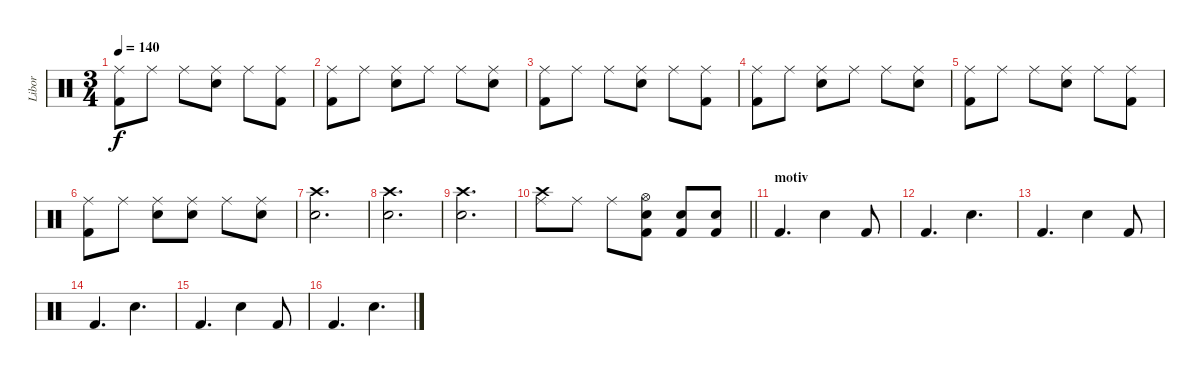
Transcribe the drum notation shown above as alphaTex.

\track ("Libor" "Libor") {instrument percussion}
\staff {score}
\articulation defaults
\ts (3 4)
\tempo 140
\clef neutral
\ks c
("Ride (middle)" "Kick (hit) 2").8{dy f} "Ride (middle)".8 "Ride (middle)".8 ("Ride (middle)" "Snare (hit) 2").8 "Ride (middle)".8 ("Ride (middle)" "Kick (hit) 2").8 |
("Ride (middle)" "Kick (hit) 2").8 "Ride (middle)".8 ("Ride (middle)" "Snare (hit) 2").8 "Ride (middle)".8 "Ride (middle)".8 ("Ride (middle)" "Snare (hit) 2").8 |
("Ride (middle)" "Kick (hit) 2").8 "Ride (middle)".8 "Ride (middle)".8 ("Ride (middle)" "Snare (hit) 2").8 "Ride (middle)".8 ("Ride (middle)" "Kick (hit) 2").8 |
("Ride (middle)" "Kick (hit) 2").8 "Ride (middle)".8 ("Ride (middle)" "Snare (hit) 2").8 "Ride (middle)".8 "Ride (middle)".8 ("Ride (middle)" "Snare (hit) 2").8 |
("Ride (middle)" "Kick (hit) 2").8 "Ride (middle)".8 "Ride (middle)".8 ("Ride (middle)" "Snare (hit) 2").8 "Ride (middle)".8 ("Ride (middle)" "Kick (hit) 2").8 |
("Ride (middle)" "Kick (hit) 2").8 "Ride (middle)".8 ("Ride (middle)" "Snare (hit) 2").8 ("Ride (middle)" "Snare (hit) 2").8 "Ride (middle)".8 ("Ride (middle)" "Snare (hit) 2").8 |
("Crash high (hit)" "Snare (hit) 2").2{d} |
("Crash high (hit)" "Snare (hit) 2").2{d} |
("Crash high (hit)" "Snare (hit) 2").2{d} |
\barLineRight lightlight
("Ride (middle)" "Crash high (hit)").8 "Ride (middle)".8 "Ride (middle)".8 ("Snare (hit) 2" "Kick (hit) 2" "Hi-Hat (open)").8 ("Snare (hit) 2" "Kick (hit) 2").8 ("Snare (hit) 2" "Kick (hit) 2").8 |
\section ("" "motiv")
"Kick (hit) 2".4{d} "Snare (hit) 2".4 "Kick (hit) 2".8 |
"Kick (hit) 2".4{d} "Snare (hit) 2".4{d} |
"Kick (hit) 2".4{d} "Snare (hit) 2".4 "Kick (hit) 2".8 |
"Kick (hit) 2".4{d} "Snare (hit) 2".4{d} |
"Kick (hit) 2".4{d} "Snare (hit) 2".4 "Kick (hit) 2".8 |
"Kick (hit) 2".4{d} "Snare (hit) 2".4{d}
